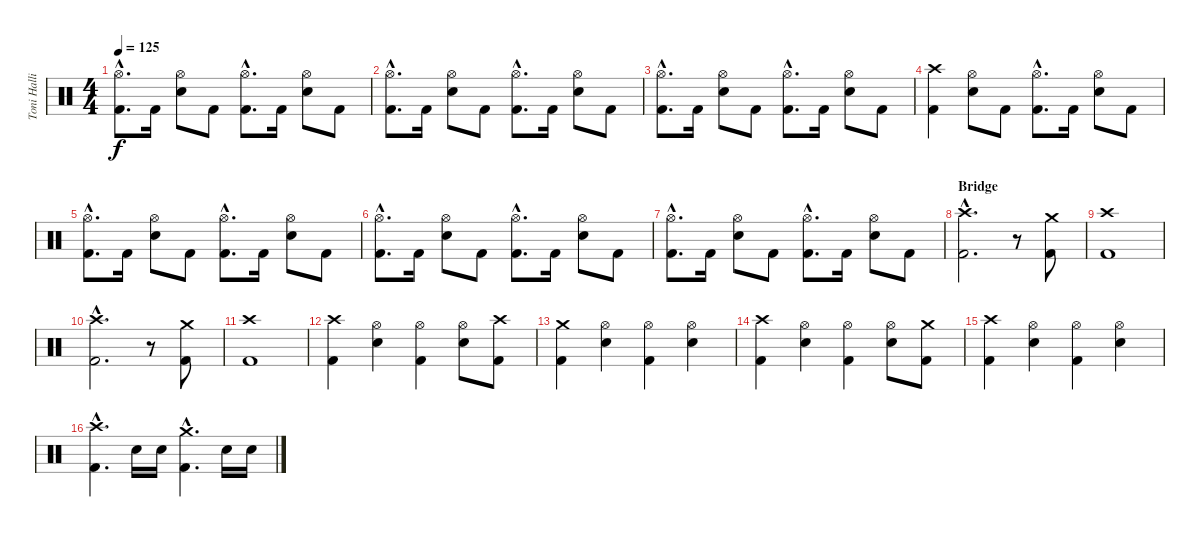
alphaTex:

\track ("Toni Hallio" "Toni Halli") {instrument percussion}
\staff {score}
\articulation defaults
\ts (4 4)
\tempo 125
\clef neutral
\ks c
("Hi-Hat (open)"{hac} "Kick (hit) 2"{hac}).8{d dy f} "Kick (hit) 2".16 ("Snare (hit) 2" "Hi-Hat (open)").8 "Kick (hit) 2".8 ("Hi-Hat (open)"{hac} "Kick (hit) 2"{hac}).8{d} "Kick (hit) 2".16 ("Snare (hit) 2" "Hi-Hat (open)").8 "Kick (hit) 2".8 |
("Hi-Hat (open)"{hac} "Kick (hit) 2"{hac}).8{d} "Kick (hit) 2".16 ("Snare (hit) 2" "Hi-Hat (open)").8 "Kick (hit) 2".8 ("Hi-Hat (open)"{hac} "Kick (hit) 2"{hac}).8{d} "Kick (hit) 2".16 ("Snare (hit) 2" "Hi-Hat (open)").8 "Kick (hit) 2".8 |
("Hi-Hat (open)"{hac} "Kick (hit) 2"{hac}).8{d} "Kick (hit) 2".16 ("Snare (hit) 2" "Hi-Hat (open)").8 "Kick (hit) 2".8 ("Hi-Hat (open)"{hac} "Kick (hit) 2"{hac}).8{d} "Kick (hit) 2".16 ("Snare (hit) 2" "Hi-Hat (open)").8 "Kick (hit) 2".8 |
("Crash high (hit)" "Kick (hit) 2").4 ("Snare (hit) 2" "Hi-Hat (open)").8 "Kick (hit) 2".8 ("Hi-Hat (open)"{hac} "Kick (hit) 2"{hac}).8{d} "Kick (hit) 2".16 ("Snare (hit) 2" "Hi-Hat (open)").8 "Kick (hit) 2".8 |
("Hi-Hat (open)"{hac} "Kick (hit) 2"{hac}).8{d} "Kick (hit) 2".16 ("Snare (hit) 2" "Hi-Hat (open)").8 "Kick (hit) 2".8 ("Hi-Hat (open)"{hac} "Kick (hit) 2"{hac}).8{d} "Kick (hit) 2".16 ("Snare (hit) 2" "Hi-Hat (open)").8 "Kick (hit) 2".8 |
("Hi-Hat (open)"{hac} "Kick (hit) 2"{hac}).8{d} "Kick (hit) 2".16 ("Snare (hit) 2" "Hi-Hat (open)").8 "Kick (hit) 2".8 ("Hi-Hat (open)"{hac} "Kick (hit) 2"{hac}).8{d} "Kick (hit) 2".16 ("Snare (hit) 2" "Hi-Hat (open)").8 "Kick (hit) 2".8 |
("Hi-Hat (open)"{hac} "Kick (hit) 2"{hac}).8{d} "Kick (hit) 2".16 ("Snare (hit) 2" "Hi-Hat (open)").8 "Kick (hit) 2".8 ("Hi-Hat (open)"{hac} "Kick (hit) 2"{hac}).8{d} "Kick (hit) 2".16 ("Snare (hit) 2" "Hi-Hat (open)").8 "Kick (hit) 2".8 |
\section ("" "Bridge")
("Crash high (hit)"{hac} "Kick (hit) 2"{hac}).2{d} r.8 ("Crash medium (hit)" "Kick (hit) 2").8 |
("Crash high (hit)" "Kick (hit) 2").1 |
("Crash high (hit)"{hac} "Kick (hit) 2"{hac}).2{d} r.8 ("Crash medium (hit)" "Kick (hit) 2").8 |
("Crash high (hit)" "Kick (hit) 2").1 |
("Crash high (hit)" "Kick (hit) 2").4 ("Snare (hit) 2" "Hi-Hat (open)").4 ("Hi-Hat (open)" "Kick (hit) 2").4 ("Snare (hit) 2" "Hi-Hat (open)").8 ("Crash high (hit)" "Kick (hit) 2").8 |
("Crash medium (hit)" "Kick (hit) 2").4 ("Snare (hit) 2" "Hi-Hat (open)").4 ("Hi-Hat (open)" "Kick (hit) 2").4 ("Snare (hit) 2" "Hi-Hat (open)").4 |
("Crash high (hit)" "Kick (hit) 2").4 ("Snare (hit) 2" "Hi-Hat (open)").4 ("Hi-Hat (open)" "Kick (hit) 2").4 ("Snare (hit) 2" "Hi-Hat (open)").8 ("Crash medium (hit)" "Kick (hit) 2").8 |
("Crash high (hit)" "Kick (hit) 2").4 ("Snare (hit) 2" "Hi-Hat (open)").4 ("Hi-Hat (open)" "Kick (hit) 2").4 ("Snare (hit) 2" "Hi-Hat (open)").4 |
("Crash high (hit)"{hac} "Kick (hit) 2"{hac}).4{d} "Snare (hit) 2".16 "Snare (hit) 2".16 ("Crash medium (hit)"{hac} "Kick (hit) 2"{hac}).4{d} "Snare (hit) 2".16 "Snare (hit) 2".16
